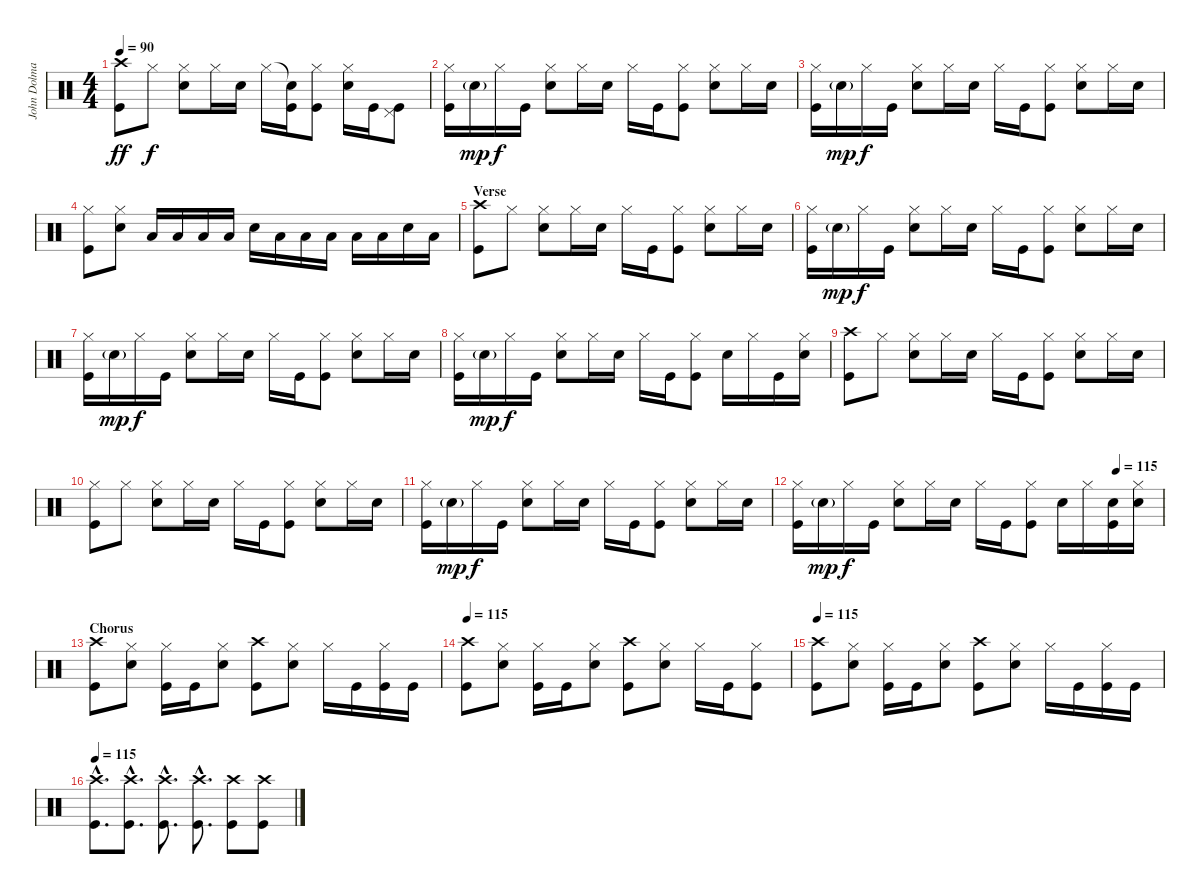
\track ("John Dolmayan " "John Dolma") {instrument percussion}
\staff {score}
\articulation defaults
\ts (4 4)
\tempo 90
\clef neutral
\ks c
("Crash high (hit)" "Kick (hit)").8{dy ff} "Hi-Hat (closed)".8{dy f} ("Hi-Hat (closed)" "Snare (hit) 2").8 "Hi-Hat (closed)".16 "Snare (hit) 2".16 "Hi-Hat (closed)".16 ("Snare (hit)"{t} "Kick (hit)").16 ("Hi-Hat (closed)" "Kick (hit)").8 ("Hi-Hat (closed)" "Snare (hit) 2").16 "Kick (hit)".16 ("Pedal Hi-Hat (hit)" "Kick (hit)").8 |
("Hi-Hat (closed)" "Kick (hit)").16 "Snare (hit) 2"{g}.16{dy mp} "Hi-Hat (closed)".16{dy f} "Kick (hit)".16 ("Hi-Hat (closed)" "Snare (hit) 2").8 "Hi-Hat (closed)".16 "Snare (hit) 2".16 "Hi-Hat (closed)".16 "Kick (hit)".16 ("Hi-Hat (closed)" "Kick (hit)").8 ("Hi-Hat (closed)" "Snare (hit) 2").8 "Hi-Hat (closed)".16 "Snare (hit) 2".16 |
("Hi-Hat (closed)" "Kick (hit)").16 "Snare (hit) 2"{g}.16{dy mp} "Hi-Hat (closed)".16{dy f} "Kick (hit)".16 ("Hi-Hat (closed)" "Snare (hit) 2").8 "Hi-Hat (closed)".16 "Snare (hit) 2".16 "Hi-Hat (closed)".16 "Kick (hit)".16 ("Hi-Hat (closed)" "Kick (hit)").8 ("Hi-Hat (closed)" "Snare (hit) 2").8 "Hi-Hat (closed)".16 "Snare (hit) 2".16 |
("Hi-Hat (closed)" "Kick (hit)").8 ("Hi-Hat (closed)" "Snare (hit) 2").8 "Low Tom (hit)".16 "Low Tom (hit)".16 "Low Tom (hit)".16 "Low Tom (hit)".16 "Snare (hit) 2".16 "Low Tom (hit)".16 "Low Tom (hit)".16 "Low Tom (hit)".16 "Low Tom (hit)".16 "Low Tom (hit)".16 "Snare (hit) 2".16 "Low Tom (hit)".16 |
\section ("" "Verse")
("Crash high (hit)" "Kick (hit)").8 "Hi-Hat (closed)".8 ("Hi-Hat (closed)" "Snare (hit) 2").8 "Hi-Hat (closed)".16 "Snare (hit) 2".16 "Hi-Hat (closed)".16 "Kick (hit)".16 ("Hi-Hat (closed)" "Kick (hit)").8 ("Hi-Hat (closed)" "Snare (hit) 2").8 "Hi-Hat (closed)".16 "Snare (hit) 2".16 |
("Hi-Hat (closed)" "Kick (hit)").16 "Snare (hit) 2"{g}.16{dy mp} "Hi-Hat (closed)".16{dy f} "Kick (hit)".16 ("Hi-Hat (closed)" "Snare (hit) 2").8 "Hi-Hat (closed)".16 "Snare (hit) 2".16 "Hi-Hat (closed)".16 "Kick (hit)".16 ("Hi-Hat (closed)" "Kick (hit)").8 ("Hi-Hat (closed)" "Snare (hit) 2").8 "Hi-Hat (closed)".16 "Snare (hit) 2".16 |
("Hi-Hat (closed)" "Kick (hit)").16 "Snare (hit) 2"{g}.16{dy mp} "Hi-Hat (closed)".16{dy f} "Kick (hit)".16 ("Hi-Hat (closed)" "Snare (hit) 2").8 "Hi-Hat (closed)".16 "Snare (hit) 2".16 "Hi-Hat (closed)".16 "Kick (hit)".16 ("Hi-Hat (closed)" "Kick (hit)").8 ("Hi-Hat (closed)" "Snare (hit) 2").8 "Hi-Hat (closed)".16 "Snare (hit) 2".16 |
("Hi-Hat (closed)" "Kick (hit)").16 "Snare (hit) 2"{g}.16{dy mp} "Hi-Hat (closed)".16{dy f} "Kick (hit)".16 ("Hi-Hat (closed)" "Snare (hit) 2").8 "Hi-Hat (closed)".16 "Snare (hit) 2".16 "Hi-Hat (closed)".16 "Kick (hit)".16 ("Hi-Hat (closed)" "Kick (hit)").8 "Snare (hit) 2".16 "Hi-Hat (closed)".16 "Kick (hit)".16 ("Hi-Hat (closed)" "Snare (hit) 2").16 |
("Crash high (hit)" "Kick (hit)").8 "Hi-Hat (closed)".8 ("Hi-Hat (closed)" "Snare (hit) 2").8 "Hi-Hat (closed)".16 "Snare (hit) 2".16 "Hi-Hat (closed)".16 "Kick (hit)".16 ("Hi-Hat (closed)" "Kick (hit)").8 ("Hi-Hat (closed)" "Snare (hit) 2").8 "Hi-Hat (closed)".16 "Snare (hit) 2".16 |
("Hi-Hat (closed)" "Kick (hit)").8 "Hi-Hat (closed)".8 ("Hi-Hat (closed)" "Snare (hit) 2").8 "Hi-Hat (closed)".16 "Snare (hit) 2".16 "Hi-Hat (closed)".16 "Kick (hit)".16 ("Hi-Hat (closed)" "Kick (hit)").8 ("Hi-Hat (closed)" "Snare (hit) 2").8 "Hi-Hat (closed)".16 "Snare (hit) 2".16 |
("Hi-Hat (closed)" "Kick (hit)").16 "Snare (hit) 2"{g}.16{dy mp} "Hi-Hat (closed)".16{dy f} "Kick (hit)".16 ("Hi-Hat (closed)" "Snare (hit) 2").8 "Hi-Hat (closed)".16 "Snare (hit) 2".16 "Hi-Hat (closed)".16 "Kick (hit)".16 ("Hi-Hat (closed)" "Kick (hit)").8 ("Hi-Hat (closed)" "Snare (hit) 2").8 "Hi-Hat (closed)".16 "Snare (hit) 2".16 |
\tempo (115 0.875)
("Hi-Hat (closed)" "Kick (hit)").16 "Snare (hit) 2"{g}.16{dy mp} "Hi-Hat (closed)".16{dy f} "Kick (hit)".16 ("Hi-Hat (closed)" "Snare (hit) 2").8 "Hi-Hat (closed)".16 "Snare (hit) 2".16 "Hi-Hat (closed)".16 "Kick (hit)".16 ("Hi-Hat (closed)" "Kick (hit)").8 "Snare (hit) 2".16 "Hi-Hat (closed)".16 ("Snare (hit) 2" "Kick (hit)").16 ("Hi-Hat (closed)" "Snare (hit) 2").16 |
\section ("" "Chorus")
("Crash high (hit)" "Kick (hit)").8 ("Hi-Hat (closed)" "Snare (hit) 2").8 ("Hi-Hat (closed)" "Kick (hit)").16 "Kick (hit)".16 ("Hi-Hat (closed)" "Snare (hit) 2").8 ("Crash high (hit)" "Kick (hit)").8 ("Hi-Hat (closed)" "Snare (hit) 2").8 "Hi-Hat (closed)".16 "Kick (hit)".16 ("Hi-Hat (closed)" "Kick (hit)").16 "Kick (hit)".16 |
\tempo 115
("Crash high (hit)" "Kick (hit)").8 ("Hi-Hat (closed)" "Snare (hit) 2").8 ("Hi-Hat (closed)" "Kick (hit)").16 "Kick (hit)".16 ("Hi-Hat (closed)" "Snare (hit) 2").8 ("Crash high (hit)" "Kick (hit)").8 ("Hi-Hat (closed)" "Snare (hit) 2").8 "Hi-Hat (closed)".16 "Kick (hit)".16 ("Hi-Hat (closed)" "Kick (hit)").8 |
\tempo 115
("Crash high (hit)" "Kick (hit)").8 ("Hi-Hat (closed)" "Snare (hit) 2").8 ("Hi-Hat (closed)" "Kick (hit)").16 "Kick (hit)".16 ("Hi-Hat (closed)" "Snare (hit) 2").8 ("Crash high (hit)" "Kick (hit)").8 ("Hi-Hat (closed)" "Snare (hit) 2").8 "Hi-Hat (closed)".16 "Kick (hit)".16 ("Hi-Hat (closed)" "Kick (hit)").16 "Kick (hit)".16 |
\tempo 115
("Crash high (hit)"{hac} "Kick (hit)"{hac}).8{d} ("Crash high (hit)"{hac} "Kick (hit)"{hac}).8{d} ("Crash high (hit)"{hac} "Kick (hit)"{hac}).8{d} ("Crash high (hit)"{hac} "Kick (hit)"{hac}).8{d} ("Crash high (hit)" "Kick (hit)").8 ("Crash high (hit)" "Kick (hit)").8
